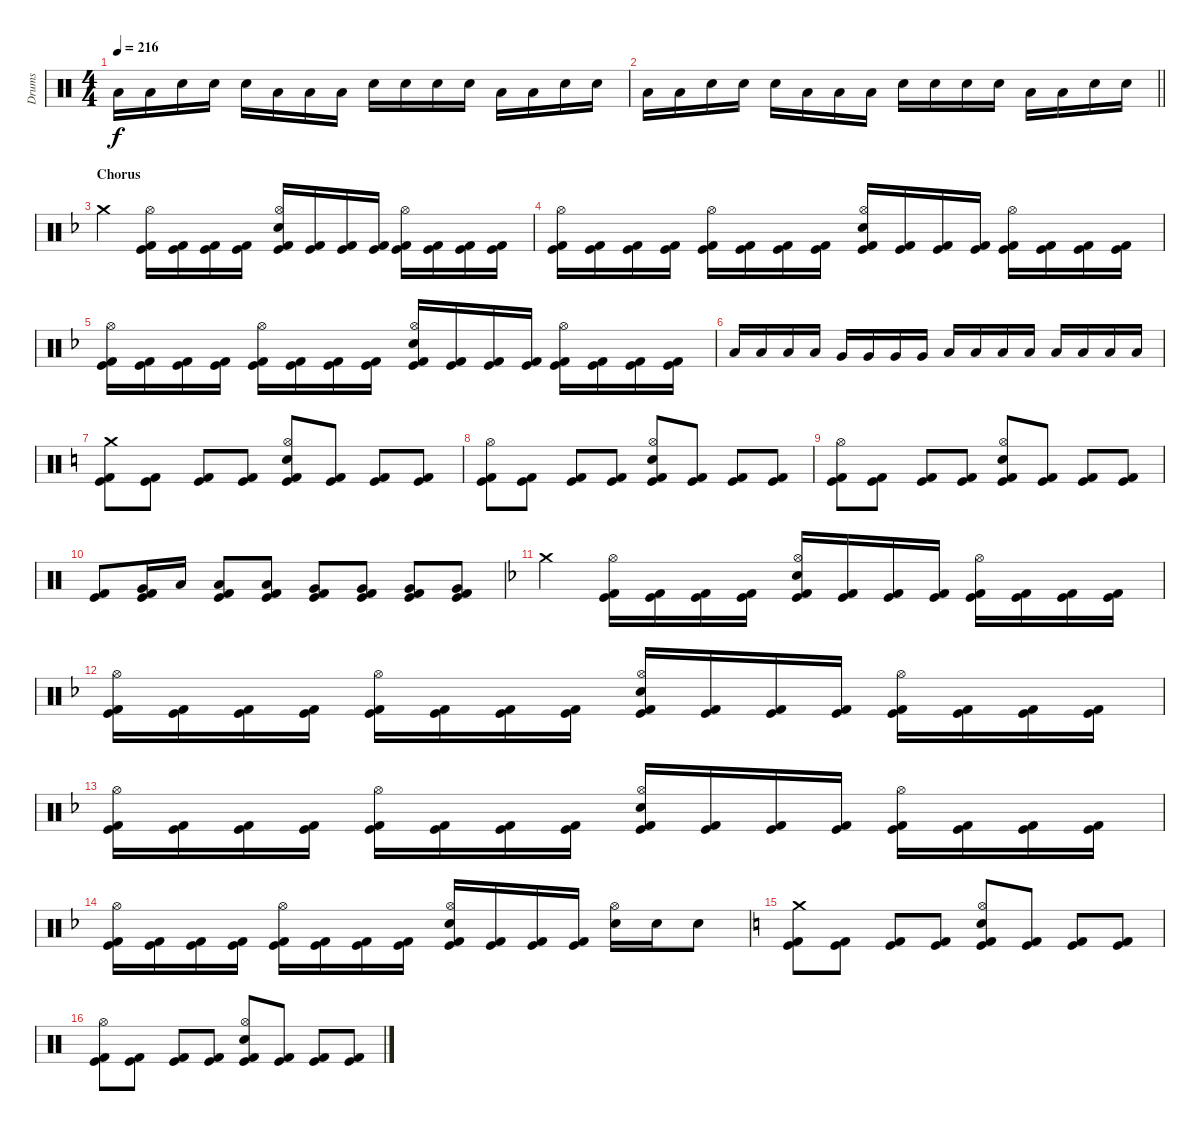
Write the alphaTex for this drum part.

\track ("Drums" "Drums") {instrument percussion}
\staff {score}
\articulation defaults
\ts (4 4)
\tempo 216
\clef neutral
\ks c "Low Tom (hit)".16{dy f} "Low Tom (hit)".16 "Electric Snare (hit)".16 "Electric Snare (hit)".16 "Electric Snare (hit)".16 "Low Floor Tom (hit)".16 "Low Floor Tom (hit)".16 "Low Floor Tom (hit)".16 "Electric Snare (hit)".16 "Electric Snare (hit)".16 "Electric Snare (hit)".16 "Electric Snare (hit)".16 "Low Tom (hit)".16 "Low Tom (hit)".16 "Electric Snare (hit)".16 "Electric Snare (hit)".16
|
\barLineRight lightlight "Low Tom (hit)".16 "Low Tom (hit)".16 "Electric Snare (hit)".16 "Electric Snare (hit)".16 "Electric Snare (hit)".16 "Low Floor Tom (hit)".16 "Low Floor Tom (hit)".16 "Low Floor Tom (hit)".16 "Electric Snare (hit)".16 "Electric Snare (hit)".16 "Electric Snare (hit)".16 "Electric Snare (hit)".16 "Low Tom (hit)".16 "Low Tom (hit)".16 "Electric Snare (hit)".16 "Electric Snare (hit)".16
|
\section ("" "Chorus")
\ks f "Crash medium (hit)".4
("Hi-Hat (open)" "Kick (hit)" "Kick (hit) 2").16 ("Kick (hit)" "Kick (hit) 2").16 ("Kick (hit)" "Kick (hit) 2").16 ("Kick (hit)" "Kick (hit) 2").16 ("Hi-Hat (open)" "Electric Snare (hit)" "Kick (hit)" "Kick (hit) 2").16 ("Kick (hit)" "Kick (hit) 2").16 ("Kick (hit)" "Kick (hit) 2").16 ("Kick (hit)" "Kick (hit) 2").16 ("Hi-Hat (open)" "Kick (hit)" "Kick (hit) 2").16 ("Kick (hit)" "Kick (hit) 2").16 ("Kick (hit)" "Kick (hit) 2").16 ("Kick (hit)" "Kick (hit) 2").16 |
("Hi-Hat (open)" "Kick (hit)" "Kick (hit) 2").16 ("Kick (hit)" "Kick (hit) 2").16 ("Kick (hit)" "Kick (hit) 2").16 ("Kick (hit)" "Kick (hit) 2").16 ("Hi-Hat (open)" "Kick (hit)" "Kick (hit) 2").16 ("Kick (hit)" "Kick (hit) 2").16 ("Kick (hit)" "Kick (hit) 2").16 ("Kick (hit)" "Kick (hit) 2").16 ("Hi-Hat (open)" "Electric Snare (hit)" "Kick (hit)" "Kick (hit) 2").16 ("Kick (hit)" "Kick (hit) 2").16 ("Kick (hit)" "Kick (hit) 2").16 ("Kick (hit)" "Kick (hit) 2").16 ("Hi-Hat (open)" "Kick (hit)" "Kick (hit) 2").16 ("Kick (hit)" "Kick (hit) 2").16 ("Kick (hit)" "Kick (hit) 2").16 ("Kick (hit)" "Kick (hit) 2").16 |
("Hi-Hat (open)" "Kick (hit)" "Kick (hit) 2").16 ("Kick (hit)" "Kick (hit) 2").16 ("Kick (hit)" "Kick (hit) 2").16 ("Kick (hit)" "Kick (hit) 2").16 ("Hi-Hat (open)" "Kick (hit)" "Kick (hit) 2").16 ("Kick (hit)" "Kick (hit) 2").16 ("Kick (hit)" "Kick (hit) 2").16 ("Kick (hit)" "Kick (hit) 2").16 ("Hi-Hat (open)" "Electric Snare (hit)" "Kick (hit)" "Kick (hit) 2").16 ("Kick (hit)" "Kick (hit) 2").16 ("Kick (hit)" "Kick (hit) 2").16 ("Kick (hit)" "Kick (hit) 2").16 ("Hi-Hat (open)" "Kick (hit)" "Kick (hit) 2").16 ("Kick (hit)" "Kick (hit) 2").16 ("Kick (hit)" "Kick (hit) 2").16 ("Kick (hit)" "Kick (hit) 2").16 |
"Low Tom (hit)".16 "Low Tom (hit)".16 "Low Tom (hit)".16 "Low Tom (hit)".16 "Very Low Tom (hit)".16 "Very Low Tom (hit)".16 "Very Low Tom (hit)".16 "Very Low Tom (hit)".16 "Low Tom (hit)".16 "Low Tom (hit)".16 "Low Tom (hit)".16 "Low Tom (hit)".16 "Low Floor Tom (hit)".16 "Low Floor Tom (hit)".16 "Low Floor Tom (hit)".16 "Low Floor Tom (hit)".16 |
\ks c
("Crash medium (hit)" "Kick (hit)" "Kick (hit) 2").8 ("Kick (hit)" "Kick (hit) 2").8 ("Kick (hit)" "Kick (hit) 2").8 ("Kick (hit)" "Kick (hit) 2").8 ("Hi-Hat (open)" "Electric Snare (hit)" "Kick (hit)" "Kick (hit) 2").8 ("Kick (hit)" "Kick (hit) 2").8 ("Kick (hit)" "Kick (hit) 2").8 ("Kick (hit)" "Kick (hit) 2").8 |
("Hi-Hat (open)" "Kick (hit)" "Kick (hit) 2").8 ("Kick (hit)" "Kick (hit) 2").8 ("Kick (hit)" "Kick (hit) 2").8 ("Kick (hit)" "Kick (hit) 2").8 ("Hi-Hat (open)" "Electric Snare (hit)" "Kick (hit)" "Kick (hit) 2").8 ("Kick (hit)" "Kick (hit) 2").8 ("Kick (hit)" "Kick (hit) 2").8 ("Kick (hit)" "Kick (hit) 2").8 |
("Hi-Hat (open)" "Kick (hit)" "Kick (hit) 2").8 ("Kick (hit)" "Kick (hit) 2").8 ("Kick (hit)" "Kick (hit) 2").8 ("Kick (hit)" "Kick (hit) 2").8 ("Hi-Hat (open)" "Electric Snare (hit)" "Kick (hit)" "Kick (hit) 2").8 ("Kick (hit)" "Kick (hit) 2").8 ("Kick (hit)" "Kick (hit) 2").8 ("Kick (hit)" "Kick (hit) 2").8 |
("Kick (hit)" "Kick (hit) 2").8 ("Very Low Tom (hit)" "Kick (hit)" "Kick (hit) 2").16 "Low Tom (hit)".16 ("Low Tom (hit)" "Kick (hit)" "Kick (hit) 2").8 ("Low Tom (hit)" "Kick (hit)" "Kick (hit) 2").8 ("Very Low Tom (hit)" "Kick (hit)" "Kick (hit) 2").8 ("Very Low Tom (hit)" "Kick (hit)" "Kick (hit) 2").8 ("Very Low Tom (hit)" "Kick (hit)" "Kick (hit) 2").8 ("Very Low Tom (hit)" "Kick (hit)" "Kick (hit) 2").8 |
\ks f "Crash medium (hit)".4
("Hi-Hat (open)" "Kick (hit)" "Kick (hit) 2").16 ("Kick (hit)" "Kick (hit) 2").16 ("Kick (hit)" "Kick (hit) 2").16 ("Kick (hit)" "Kick (hit) 2").16 ("Hi-Hat (open)" "Electric Snare (hit)" "Kick (hit)" "Kick (hit) 2").16 ("Kick (hit)" "Kick (hit) 2").16 ("Kick (hit)" "Kick (hit) 2").16 ("Kick (hit)" "Kick (hit) 2").16 ("Hi-Hat (open)" "Kick (hit)" "Kick (hit) 2").16 ("Kick (hit)" "Kick (hit) 2").16 ("Kick (hit)" "Kick (hit) 2").16 ("Kick (hit)" "Kick (hit) 2").16 |
("Hi-Hat (open)" "Kick (hit)" "Kick (hit) 2").16 ("Kick (hit)" "Kick (hit) 2").16 ("Kick (hit)" "Kick (hit) 2").16 ("Kick (hit)" "Kick (hit) 2").16 ("Hi-Hat (open)" "Kick (hit)" "Kick (hit) 2").16 ("Kick (hit)" "Kick (hit) 2").16 ("Kick (hit)" "Kick (hit) 2").16 ("Kick (hit)" "Kick (hit) 2").16 ("Hi-Hat (open)" "Electric Snare (hit)" "Kick (hit)" "Kick (hit) 2").16 ("Kick (hit)" "Kick (hit) 2").16 ("Kick (hit)" "Kick (hit) 2").16 ("Kick (hit)" "Kick (hit) 2").16 ("Hi-Hat (open)" "Kick (hit)" "Kick (hit) 2").16 ("Kick (hit)" "Kick (hit) 2").16 ("Kick (hit)" "Kick (hit) 2").16 ("Kick (hit)" "Kick (hit) 2").16 |
("Hi-Hat (open)" "Kick (hit)" "Kick (hit) 2").16 ("Kick (hit)" "Kick (hit) 2").16 ("Kick (hit)" "Kick (hit) 2").16 ("Kick (hit)" "Kick (hit) 2").16 ("Hi-Hat (open)" "Kick (hit)" "Kick (hit) 2").16 ("Kick (hit)" "Kick (hit) 2").16 ("Kick (hit)" "Kick (hit) 2").16 ("Kick (hit)" "Kick (hit) 2").16 ("Hi-Hat (open)" "Electric Snare (hit)" "Kick (hit)" "Kick (hit) 2").16 ("Kick (hit)" "Kick (hit) 2").16 ("Kick (hit)" "Kick (hit) 2").16 ("Kick (hit)" "Kick (hit) 2").16 ("Hi-Hat (open)" "Kick (hit)" "Kick (hit) 2").16 ("Kick (hit)" "Kick (hit) 2").16 ("Kick (hit)" "Kick (hit) 2").16 ("Kick (hit)" "Kick (hit) 2").16 |
("Hi-Hat (open)" "Kick (hit)" "Kick (hit) 2").16 ("Kick (hit)" "Kick (hit) 2").16 ("Kick (hit)" "Kick (hit) 2").16 ("Kick (hit)" "Kick (hit) 2").16 ("Hi-Hat (open)" "Kick (hit)" "Kick (hit) 2").16 ("Kick (hit)" "Kick (hit) 2").16 ("Kick (hit)" "Kick (hit) 2").16 ("Kick (hit)" "Kick (hit) 2").16 ("Hi-Hat (open)" "Electric Snare (hit)" "Kick (hit)" "Kick (hit) 2").16 ("Kick (hit)" "Kick (hit) 2").16 ("Kick (hit)" "Kick (hit) 2").16 ("Kick (hit)" "Kick (hit) 2").16 ("Hi-Hat (open)" "Electric Snare (hit)").16 "Electric Snare (hit)".16 "Electric Snare (hit)".8 |
\ks c
("Crash medium (hit)" "Kick (hit)" "Kick (hit) 2").8 ("Kick (hit)" "Kick (hit) 2").8 ("Kick (hit)" "Kick (hit) 2").8 ("Kick (hit)" "Kick (hit) 2").8 ("Hi-Hat (open)" "Electric Snare (hit)" "Kick (hit)" "Kick (hit) 2").8 ("Kick (hit)" "Kick (hit) 2").8 ("Kick (hit)" "Kick (hit) 2").8 ("Kick (hit)" "Kick (hit) 2").8 |
("Hi-Hat (open)" "Kick (hit)" "Kick (hit) 2").8 ("Kick (hit)" "Kick (hit) 2").8 ("Kick (hit)" "Kick (hit) 2").8 ("Kick (hit)" "Kick (hit) 2").8 ("Hi-Hat (open)" "Electric Snare (hit)" "Kick (hit)" "Kick (hit) 2").8 ("Kick (hit)" "Kick (hit) 2").8 ("Kick (hit)" "Kick (hit) 2").8 ("Kick (hit)" "Kick (hit) 2").8
